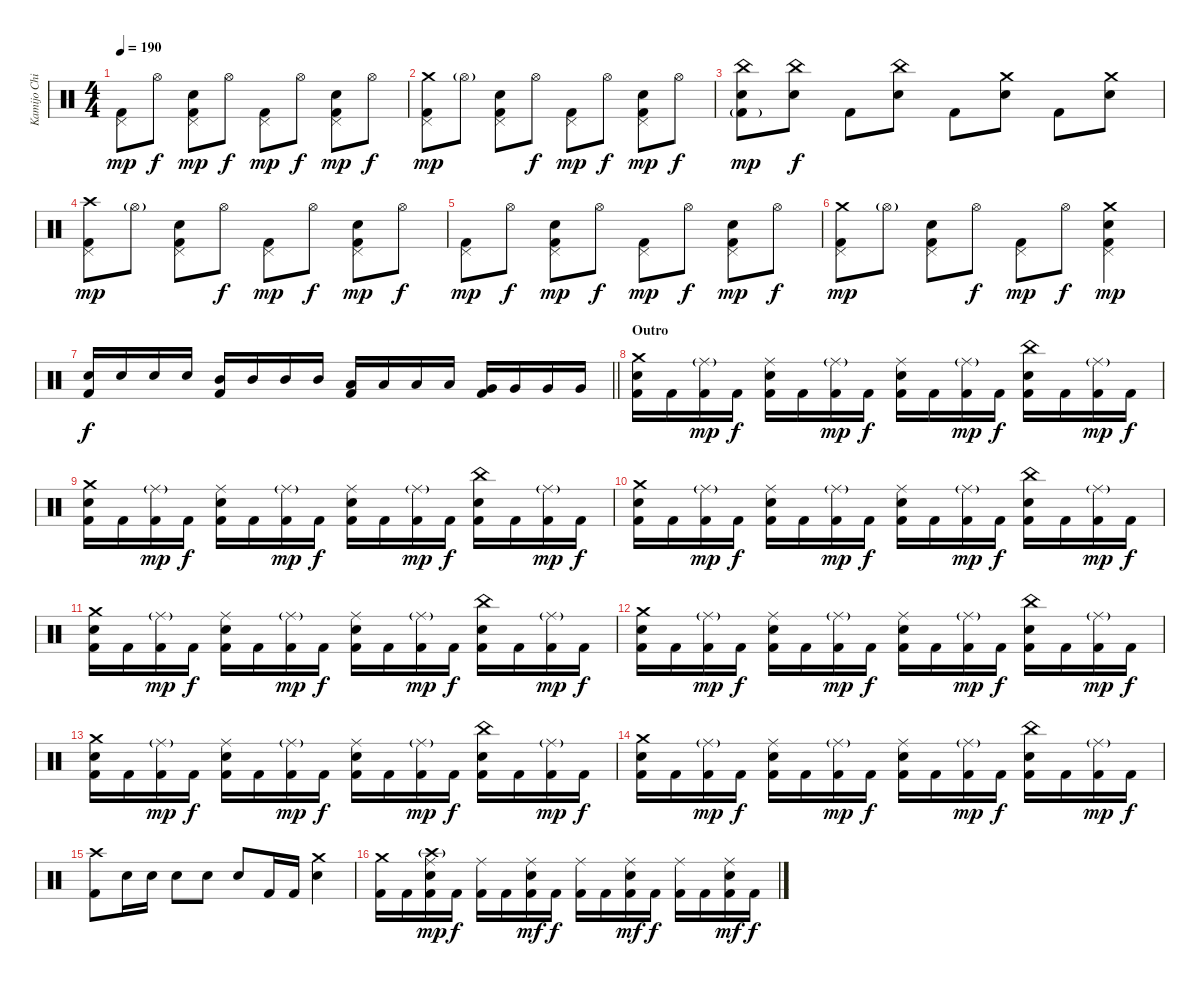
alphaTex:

\track ("Kamijo Chihiro" "Kamijo Chi") {instrument percussion}
\staff {score}
\articulation defaults
\ts (4 4)
\tempo 190
\clef neutral
\ks c
("Pedal Hi-Hat (hit)" "Kick (hit) 2").8{dy mp} "Hi-Hat (open)".8{dy f} ("Pedal Hi-Hat (hit)" "Snare (hit) 2" "Kick (hit) 2").8{dy mp} "Hi-Hat (open)".8{dy f} ("Pedal Hi-Hat (hit)" "Kick (hit) 2").8{dy mp} "Hi-Hat (open)".8{dy f} ("Pedal Hi-Hat (hit)" "Snare (hit) 2" "Kick (hit) 2").8{dy mp} "Hi-Hat (open)".8{dy f} |
("Crash medium (hit)" "Pedal Hi-Hat (hit)" "Kick (hit) 2").8{dy mp} "Hi-Hat (open)"{g}.8 ("Pedal Hi-Hat (hit)" "Snare (hit) 2" "Kick (hit) 2").8 "Hi-Hat (open)".8{dy f} ("Pedal Hi-Hat (hit)" "Kick (hit) 2").8{dy mp} "Hi-Hat (open)".8{dy f} ("Pedal Hi-Hat (hit)" "Snare (hit) 2" "Kick (hit) 2").8{dy mp} "Hi-Hat (open)".8{dy f} |
("China (hit)" "Snare (hit) 2" "Kick (hit) 2"{g}).8{dy mp} ("China (hit)" "Snare (hit) 2").8{dy f} "Kick (hit) 2".8 ("China (hit)" "Snare (hit) 2").8 "Kick (hit) 2".8 ("Crash medium (hit)" "Snare (hit) 2").8 "Kick (hit) 2".8 ("Crash medium (hit)" "Snare (hit) 2").8 |
("Crash high (hit)" "Pedal Hi-Hat (hit)" "Kick (hit) 2").8{dy mp} "Hi-Hat (open)"{g}.8 ("Pedal Hi-Hat (hit)" "Snare (hit) 2" "Kick (hit) 2").8 "Hi-Hat (open)".8{dy f} ("Pedal Hi-Hat (hit)" "Kick (hit) 2").8{dy mp} "Hi-Hat (open)".8{dy f} ("Pedal Hi-Hat (hit)" "Snare (hit) 2" "Kick (hit) 2").8{dy mp} "Hi-Hat (open)".8{dy f} |
("Pedal Hi-Hat (hit)" "Kick (hit) 2").8{dy mp} "Hi-Hat (open)".8{dy f} ("Pedal Hi-Hat (hit)" "Snare (hit) 2" "Kick (hit) 2").8{dy mp} "Hi-Hat (open)".8{dy f} ("Pedal Hi-Hat (hit)" "Kick (hit) 2").8{dy mp} "Hi-Hat (open)".8{dy f} ("Pedal Hi-Hat (hit)" "Snare (hit) 2" "Kick (hit) 2").8{dy mp} "Hi-Hat (open)".8{dy f} |
("Crash medium (hit)" "Pedal Hi-Hat (hit)" "Kick (hit) 2").8{dy mp} "Hi-Hat (open)"{g}.8 ("Pedal Hi-Hat (hit)" "Snare (hit) 2" "Kick (hit) 2").8 "Hi-Hat (open)".8{dy f} ("Pedal Hi-Hat (hit)" "Kick (hit) 2").8{dy mp} "Hi-Hat (open)".8{dy f} ("Crash medium (hit)" "Pedal Hi-Hat (hit)" "Snare (hit) 2" "Kick (hit) 2").4{dy mp} |
\barLineRight lightlight
("Snare (hit) 2" "Kick (hit) 2").16{dy f} "Snare (hit) 2".16 "Snare (hit) 2".16 "Snare (hit) 2".16 ("Mid Tom (hit)" "Kick (hit) 2").16 "Mid Tom (hit)".16 "Mid Tom (hit)".16 "Mid Tom (hit)".16 ("Low Tom (hit)" "Kick (hit) 2").16 "Low Tom (hit)".16 "Low Tom (hit)".16 "Low Tom (hit)".16 ("Very Low Tom (hit)" "Kick (hit) 2").16 "Very Low Tom (hit)".16 "Very Low Tom (hit)".16 "Very Low Tom (hit)".16 |
\section ("" "Outro")
("Crash medium (hit)" "Snare (hit) 2" "Kick (hit) 2").16 "Kick (hit) 2".16 ("Ride (middle)"{g} "Kick (hit) 2").16{dy mp} "Kick (hit) 2".16{dy f} ("Ride (middle)" "Snare (hit) 2" "Kick (hit) 2").16 "Kick (hit) 2".16 ("Ride (middle)"{g} "Kick (hit) 2").16{dy mp} "Kick (hit) 2".16{dy f} ("Ride (middle)" "Snare (hit) 2" "Kick (hit) 2").16 "Kick (hit) 2".16 ("Ride (middle)"{g} "Kick (hit) 2").16{dy mp} "Kick (hit) 2".16{dy f} ("China (hit)" "Snare (hit) 2" "Kick (hit) 2").16 "Kick (hit) 2".16 ("Ride (middle)"{g} "Kick (hit) 2").16{dy mp} "Kick (hit) 2".16{dy f} |
("Crash medium (hit)" "Snare (hit) 2" "Kick (hit) 2").16 "Kick (hit) 2".16 ("Ride (middle)"{g} "Kick (hit) 2").16{dy mp} "Kick (hit) 2".16{dy f} ("Ride (middle)" "Snare (hit) 2" "Kick (hit) 2").16 "Kick (hit) 2".16 ("Ride (middle)"{g} "Kick (hit) 2").16{dy mp} "Kick (hit) 2".16{dy f} ("Ride (middle)" "Snare (hit) 2" "Kick (hit) 2").16 "Kick (hit) 2".16 ("Ride (middle)"{g} "Kick (hit) 2").16{dy mp} "Kick (hit) 2".16{dy f} ("China (hit)" "Snare (hit) 2" "Kick (hit) 2").16 "Kick (hit) 2".16 ("Ride (middle)"{g} "Kick (hit) 2").16{dy mp} "Kick (hit) 2".16{dy f} |
("Crash medium (hit)" "Snare (hit) 2" "Kick (hit) 2").16 "Kick (hit) 2".16 ("Ride (middle)"{g} "Kick (hit) 2").16{dy mp} "Kick (hit) 2".16{dy f} ("Ride (middle)" "Snare (hit) 2" "Kick (hit) 2").16 "Kick (hit) 2".16 ("Ride (middle)"{g} "Kick (hit) 2").16{dy mp} "Kick (hit) 2".16{dy f} ("Ride (middle)" "Snare (hit) 2" "Kick (hit) 2").16 "Kick (hit) 2".16 ("Ride (middle)"{g} "Kick (hit) 2").16{dy mp} "Kick (hit) 2".16{dy f} ("China (hit)" "Snare (hit) 2" "Kick (hit) 2").16 "Kick (hit) 2".16 ("Ride (middle)"{g} "Kick (hit) 2").16{dy mp} "Kick (hit) 2".16{dy f} |
("Crash medium (hit)" "Snare (hit) 2" "Kick (hit) 2").16 "Kick (hit) 2".16 ("Ride (middle)"{g} "Kick (hit) 2").16{dy mp} "Kick (hit) 2".16{dy f} ("Ride (middle)" "Snare (hit) 2" "Kick (hit) 2").16 "Kick (hit) 2".16 ("Ride (middle)"{g} "Kick (hit) 2").16{dy mp} "Kick (hit) 2".16{dy f} ("Ride (middle)" "Snare (hit) 2" "Kick (hit) 2").16 "Kick (hit) 2".16 ("Ride (middle)"{g} "Kick (hit) 2").16{dy mp} "Kick (hit) 2".16{dy f} ("China (hit)" "Snare (hit) 2" "Kick (hit) 2").16 "Kick (hit) 2".16 ("Ride (middle)"{g} "Kick (hit) 2").16{dy mp} "Kick (hit) 2".16{dy f} |
("Crash medium (hit)" "Snare (hit) 2" "Kick (hit) 2").16 "Kick (hit) 2".16 ("Ride (middle)"{g} "Kick (hit) 2").16{dy mp} "Kick (hit) 2".16{dy f} ("Ride (middle)" "Snare (hit) 2" "Kick (hit) 2").16 "Kick (hit) 2".16 ("Ride (middle)"{g} "Kick (hit) 2").16{dy mp} "Kick (hit) 2".16{dy f} ("Ride (middle)" "Snare (hit) 2" "Kick (hit) 2").16 "Kick (hit) 2".16 ("Ride (middle)"{g} "Kick (hit) 2").16{dy mp} "Kick (hit) 2".16{dy f} ("China (hit)" "Snare (hit) 2" "Kick (hit) 2").16 "Kick (hit) 2".16 ("Ride (middle)"{g} "Kick (hit) 2").16{dy mp} "Kick (hit) 2".16{dy f} |
("Crash medium (hit)" "Snare (hit) 2" "Kick (hit) 2").16 "Kick (hit) 2".16 ("Ride (middle)"{g} "Kick (hit) 2").16{dy mp} "Kick (hit) 2".16{dy f} ("Ride (middle)" "Snare (hit) 2" "Kick (hit) 2").16 "Kick (hit) 2".16 ("Ride (middle)"{g} "Kick (hit) 2").16{dy mp} "Kick (hit) 2".16{dy f} ("Ride (middle)" "Snare (hit) 2" "Kick (hit) 2").16 "Kick (hit) 2".16 ("Ride (middle)"{g} "Kick (hit) 2").16{dy mp} "Kick (hit) 2".16{dy f} ("China (hit)" "Snare (hit) 2" "Kick (hit) 2").16 "Kick (hit) 2".16 ("Ride (middle)"{g} "Kick (hit) 2").16{dy mp} "Kick (hit) 2".16{dy f} |
("Crash medium (hit)" "Snare (hit) 2" "Kick (hit) 2").16 "Kick (hit) 2".16 ("Ride (middle)"{g} "Kick (hit) 2").16{dy mp} "Kick (hit) 2".16{dy f} ("Ride (middle)" "Snare (hit) 2" "Kick (hit) 2").16 "Kick (hit) 2".16 ("Ride (middle)"{g} "Kick (hit) 2").16{dy mp} "Kick (hit) 2".16{dy f} ("Ride (middle)" "Snare (hit) 2" "Kick (hit) 2").16 "Kick (hit) 2".16 ("Ride (middle)"{g} "Kick (hit) 2").16{dy mp} "Kick (hit) 2".16{dy f} ("China (hit)" "Snare (hit) 2" "Kick (hit) 2").16 "Kick (hit) 2".16 ("Ride (middle)"{g} "Kick (hit) 2").16{dy mp} "Kick (hit) 2".16{dy f} |
("Crash high (hit)" "Kick (hit) 2").8 "Snare (hit) 2".16 "Snare (hit) 2".16 "Snare (hit) 2".8 "Snare (hit) 2".8 "Snare (hit) 2".8 "Kick (hit) 2".16 "Kick (hit) 2".16 ("Crash medium (hit)" "Snare (hit) 2").4 |
("Crash medium (hit)" "Kick (hit) 2").16 "Kick (hit) 2".16 ("Ride (middle)" "Crash high (hit)"{g} "Snare (hit) 2" "Kick (hit) 2").16{dy mp} "Kick (hit) 2".16{dy f} ("Ride (middle)" "Kick (hit) 2").16 "Kick (hit) 2".16 ("Ride (middle)" "Snare (hit) 2" "Kick (hit) 2").16{dy mf} "Kick (hit) 2".16{dy f} ("Ride (middle)" "Kick (hit) 2").16 "Kick (hit) 2".16 ("Ride (middle)" "Snare (hit) 2" "Kick (hit) 2").16{dy mf} "Kick (hit) 2".16{dy f} ("Ride (middle)" "Kick (hit) 2").16 "Kick (hit) 2".16 ("Ride (middle)" "Snare (hit) 2" "Kick (hit) 2").16{dy mf} "Kick (hit) 2".16{dy f}
